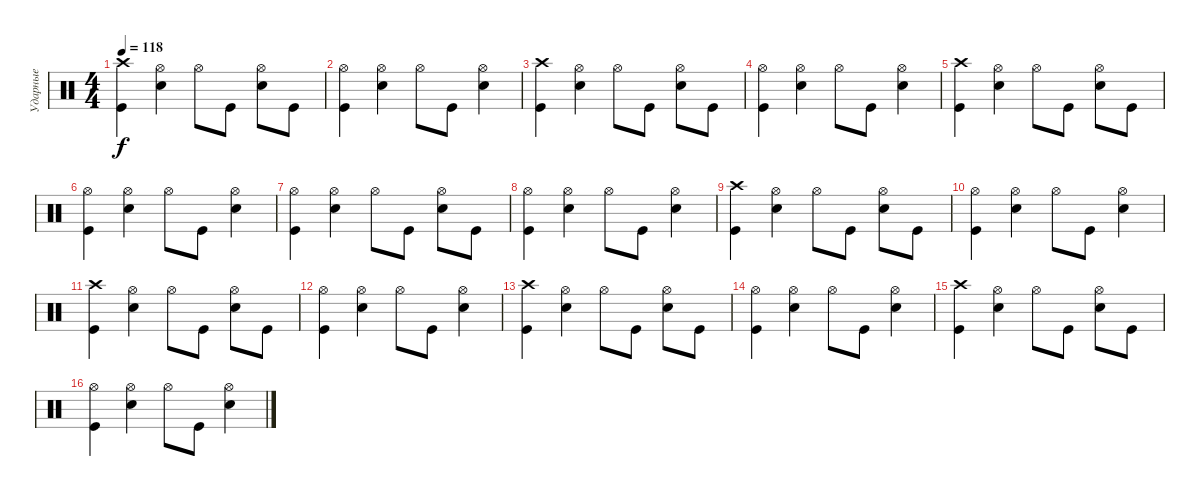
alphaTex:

\track ("Ударные" "Ударные") {instrument percussion}
\staff {score}
\articulation defaults
\ts (4 4)
\tempo 118
\clef neutral
\ks c
("Crash high (hit)" "Kick (hit)").4{dy f} ("Hi-Hat (open)" "Snare (hit) 2").4 "Hi-Hat (open)".8 "Kick (hit)".8 ("Hi-Hat (open)" "Snare (hit) 2").8 "Kick (hit)".8 |
("Hi-Hat (open)" "Kick (hit)").4 ("Hi-Hat (open)" "Snare (hit) 2").4 "Hi-Hat (open)".8 "Kick (hit)".8 ("Hi-Hat (open)" "Snare (hit) 2").4 |
("Crash high (hit)" "Kick (hit)").4 ("Hi-Hat (open)" "Snare (hit) 2").4 "Hi-Hat (open)".8 "Kick (hit)".8 ("Hi-Hat (open)" "Snare (hit) 2").8 "Kick (hit)".8 |
("Hi-Hat (open)" "Kick (hit)").4 ("Hi-Hat (open)" "Snare (hit) 2").4 "Hi-Hat (open)".8 "Kick (hit)".8 ("Hi-Hat (open)" "Snare (hit) 2").4 |
("Crash high (hit)" "Kick (hit)").4 ("Hi-Hat (open)" "Snare (hit) 2").4 "Hi-Hat (open)".8 "Kick (hit)".8 ("Hi-Hat (open)" "Snare (hit) 2").8 "Kick (hit)".8 |
("Hi-Hat (open)" "Kick (hit)").4 ("Hi-Hat (open)" "Snare (hit) 2").4 "Hi-Hat (open)".8 "Kick (hit)".8 ("Hi-Hat (open)" "Snare (hit) 2").4 |
("Hi-Hat (open)" "Kick (hit)").4 ("Hi-Hat (open)" "Snare (hit) 2").4 "Hi-Hat (open)".8 "Kick (hit)".8 ("Hi-Hat (open)" "Snare (hit) 2").8 "Kick (hit)".8 |
("Hi-Hat (open)" "Kick (hit)").4 ("Hi-Hat (open)" "Snare (hit) 2").4 "Hi-Hat (open)".8 "Kick (hit)".8 ("Hi-Hat (open)" "Snare (hit) 2").4 |
("Crash high (hit)" "Kick (hit)").4 ("Hi-Hat (open)" "Snare (hit) 2").4 "Hi-Hat (open)".8 "Kick (hit)".8 ("Hi-Hat (open)" "Snare (hit) 2").8 "Kick (hit)".8 |
("Hi-Hat (open)" "Kick (hit)").4 ("Hi-Hat (open)" "Snare (hit) 2").4 "Hi-Hat (open)".8 "Kick (hit)".8 ("Hi-Hat (open)" "Snare (hit) 2").4 |
("Crash high (hit)" "Kick (hit)").4 ("Hi-Hat (open)" "Snare (hit) 2").4 "Hi-Hat (open)".8 "Kick (hit)".8 ("Hi-Hat (open)" "Snare (hit) 2").8 "Kick (hit)".8 |
("Hi-Hat (open)" "Kick (hit)").4 ("Hi-Hat (open)" "Snare (hit) 2").4 "Hi-Hat (open)".8 "Kick (hit)".8 ("Hi-Hat (open)" "Snare (hit) 2").4 |
("Crash high (hit)" "Kick (hit)").4 ("Hi-Hat (open)" "Snare (hit) 2").4 "Hi-Hat (open)".8 "Kick (hit)".8 ("Hi-Hat (open)" "Snare (hit) 2").8 "Kick (hit)".8 |
("Hi-Hat (open)" "Kick (hit)").4 ("Hi-Hat (open)" "Snare (hit) 2").4 "Hi-Hat (open)".8 "Kick (hit)".8 ("Hi-Hat (open)" "Snare (hit) 2").4 |
("Crash high (hit)" "Kick (hit)").4 ("Hi-Hat (open)" "Snare (hit) 2").4 "Hi-Hat (open)".8 "Kick (hit)".8 ("Hi-Hat (open)" "Snare (hit) 2").8 "Kick (hit)".8 |
("Hi-Hat (open)" "Kick (hit)").4 ("Hi-Hat (open)" "Snare (hit) 2").4 "Hi-Hat (open)".8 "Kick (hit)".8 ("Hi-Hat (open)" "Snare (hit) 2").4
